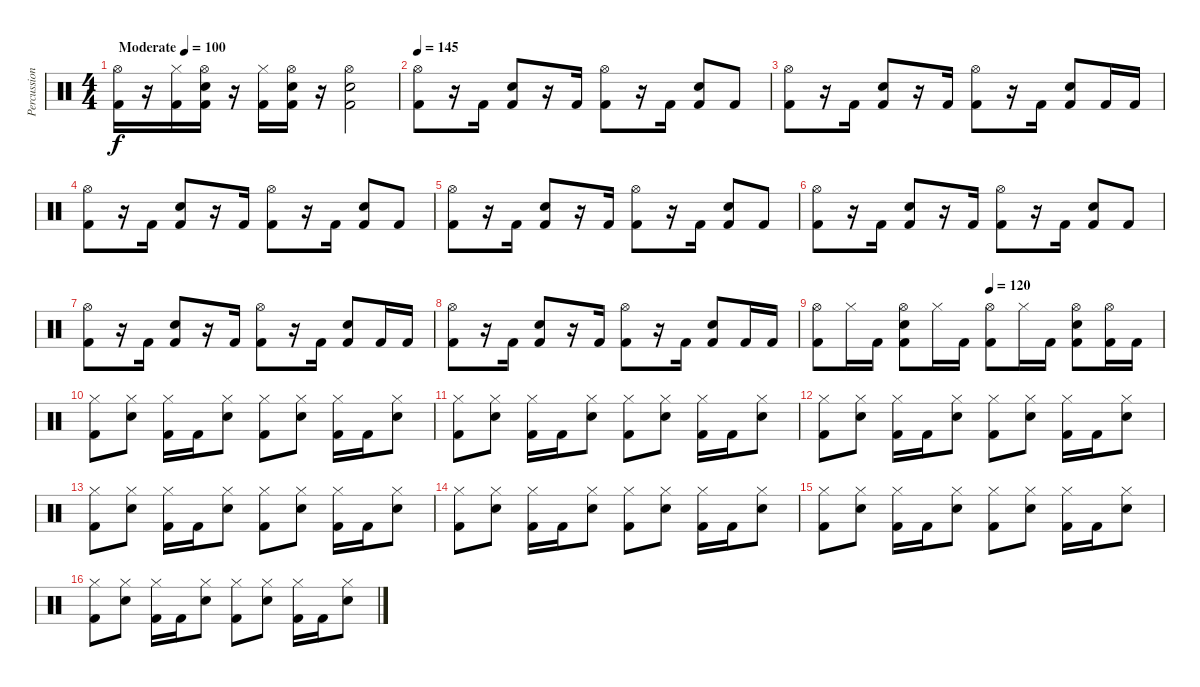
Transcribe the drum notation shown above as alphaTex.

\track ("Percussions" "Percussion") {instrument percussion}
\staff {score}
\articulation defaults
\ts (4 4)
\tempo (100 "Moderate")
\clef neutral
\ks c
("Hi-Hat (open)" "Kick (hit) 2").16{dy f} r.16 ("Hi-Hat (closed)" "Kick (hit) 2").16 ("Hi-Hat (open)" "Kick (hit) 2" "Snare (hit) 2").16 r.16 ("Hi-Hat (closed)" "Kick (hit) 2").16 ("Hi-Hat (open)" "Kick (hit) 2" "Snare (hit) 2").16 r.16 ("Hi-Hat (open)" "Kick (hit) 2" "Snare (hit) 2").2 |
\tempo 145
("Hi-Hat (open)" "Kick (hit) 2").8 r.16 "Kick (hit) 2".16 ("Kick (hit) 2" "Snare (hit) 2").8 r.16 "Kick (hit) 2".16 ("Hi-Hat (open)" "Kick (hit) 2").8 r.16 "Kick (hit) 2".16 ("Kick (hit) 2" "Snare (hit) 2").8 "Kick (hit) 2".8 |
("Hi-Hat (open)" "Kick (hit) 2").8 r.16 "Kick (hit) 2".16 ("Kick (hit) 2" "Snare (hit) 2").8 r.16 "Kick (hit) 2".16 ("Hi-Hat (open)" "Kick (hit) 2").8 r.16 "Kick (hit) 2".16 ("Kick (hit) 2" "Snare (hit) 2").8 "Kick (hit) 2".16 "Kick (hit) 2".16 |
("Hi-Hat (open)" "Kick (hit) 2").8 r.16 "Kick (hit) 2".16 ("Kick (hit) 2" "Snare (hit) 2").8 r.16 "Kick (hit) 2".16 ("Hi-Hat (open)" "Kick (hit) 2").8 r.16 "Kick (hit) 2".16 ("Kick (hit) 2" "Snare (hit) 2").8 "Kick (hit) 2".8 |
("Hi-Hat (open)" "Kick (hit) 2").8 r.16 "Kick (hit) 2".16 ("Kick (hit) 2" "Snare (hit) 2").8 r.16 "Kick (hit) 2".16 ("Hi-Hat (open)" "Kick (hit) 2").8 r.16 "Kick (hit) 2".16 ("Kick (hit) 2" "Snare (hit) 2").8 "Kick (hit) 2".8 |
("Hi-Hat (open)" "Kick (hit) 2").8 r.16 "Kick (hit) 2".16 ("Kick (hit) 2" "Snare (hit) 2").8 r.16 "Kick (hit) 2".16 ("Hi-Hat (open)" "Kick (hit) 2").8 r.16 "Kick (hit) 2".16 ("Kick (hit) 2" "Snare (hit) 2").8 "Kick (hit) 2".8 |
("Hi-Hat (open)" "Kick (hit) 2").8 r.16 "Kick (hit) 2".16 ("Kick (hit) 2" "Snare (hit) 2").8 r.16 "Kick (hit) 2".16 ("Hi-Hat (open)" "Kick (hit) 2").8 r.16 "Kick (hit) 2".16 ("Kick (hit) 2" "Snare (hit) 2").8 "Kick (hit) 2".16 "Kick (hit) 2".16 |
("Hi-Hat (open)" "Kick (hit) 2").8 r.16 "Kick (hit) 2".16 ("Kick (hit) 2" "Snare (hit) 2").8 r.16 "Kick (hit) 2".16 ("Hi-Hat (open)" "Kick (hit) 2").8 r.16 "Kick (hit) 2".16 ("Kick (hit) 2" "Snare (hit) 2").8 "Kick (hit) 2".16 "Kick (hit) 2".16 |
\tempo (120 0.5)
("Hi-Hat (open)" "Kick (hit) 2").8 "Hi-Hat (closed)".16 "Kick (hit) 2".16 ("Hi-Hat (open)" "Kick (hit) 2" "Snare (hit) 2").8 "Hi-Hat (closed)".16 "Kick (hit) 2".16 ("Hi-Hat (open)" "Kick (hit) 2").8 "Hi-Hat (closed)".16 "Kick (hit) 2".16 ("Hi-Hat (open)" "Kick (hit) 2" "Snare (hit) 2").8 ("Hi-Hat (open)" "Kick (hit) 2").16 "Kick (hit) 2".16 |
("Hi-Hat (closed)" "Kick (hit) 2").8 ("Hi-Hat (closed)" "Snare (hit) 2").8 ("Hi-Hat (closed)" "Kick (hit) 2").16 "Kick (hit) 2".16 ("Hi-Hat (closed)" "Snare (hit) 2").8 ("Hi-Hat (closed)" "Kick (hit) 2").8 ("Hi-Hat (closed)" "Snare (hit) 2").8 ("Hi-Hat (closed)" "Kick (hit) 2").16 "Kick (hit) 2".16 ("Hi-Hat (closed)" "Snare (hit) 2").8 |
("Hi-Hat (closed)" "Kick (hit) 2").8 ("Hi-Hat (closed)" "Snare (hit) 2").8 ("Hi-Hat (closed)" "Kick (hit) 2").16 "Kick (hit) 2".16 ("Hi-Hat (closed)" "Snare (hit) 2").8 ("Hi-Hat (closed)" "Kick (hit) 2").8 ("Hi-Hat (closed)" "Snare (hit) 2").8 ("Hi-Hat (closed)" "Kick (hit) 2").16 "Kick (hit) 2".16 ("Hi-Hat (closed)" "Snare (hit) 2").8 |
("Hi-Hat (closed)" "Kick (hit) 2").8 ("Hi-Hat (closed)" "Snare (hit) 2").8 ("Hi-Hat (closed)" "Kick (hit) 2").16 "Kick (hit) 2".16 ("Hi-Hat (closed)" "Snare (hit) 2").8 ("Hi-Hat (closed)" "Kick (hit) 2").8 ("Hi-Hat (closed)" "Snare (hit) 2").8 ("Hi-Hat (closed)" "Kick (hit) 2").16 "Kick (hit) 2".16 ("Hi-Hat (closed)" "Snare (hit) 2").8 |
("Hi-Hat (closed)" "Kick (hit) 2").8 ("Hi-Hat (closed)" "Snare (hit) 2").8 ("Hi-Hat (closed)" "Kick (hit) 2").16 "Kick (hit) 2".16 ("Hi-Hat (closed)" "Snare (hit) 2").8 ("Hi-Hat (closed)" "Kick (hit) 2").8 ("Hi-Hat (closed)" "Snare (hit) 2").8 ("Hi-Hat (closed)" "Kick (hit) 2").16 "Kick (hit) 2".16 ("Hi-Hat (closed)" "Snare (hit) 2").8 |
("Hi-Hat (closed)" "Kick (hit) 2").8 ("Hi-Hat (closed)" "Snare (hit) 2").8 ("Hi-Hat (closed)" "Kick (hit) 2").16 "Kick (hit) 2".16 ("Hi-Hat (closed)" "Snare (hit) 2").8 ("Hi-Hat (closed)" "Kick (hit) 2").8 ("Hi-Hat (closed)" "Snare (hit) 2").8 ("Hi-Hat (closed)" "Kick (hit) 2").16 "Kick (hit) 2".16 ("Hi-Hat (closed)" "Snare (hit) 2").8 |
("Hi-Hat (closed)" "Kick (hit) 2").8 ("Hi-Hat (closed)" "Snare (hit) 2").8 ("Hi-Hat (closed)" "Kick (hit) 2").16 "Kick (hit) 2".16 ("Hi-Hat (closed)" "Snare (hit) 2").8 ("Hi-Hat (closed)" "Kick (hit) 2").8 ("Hi-Hat (closed)" "Snare (hit) 2").8 ("Hi-Hat (closed)" "Kick (hit) 2").16 "Kick (hit) 2".16 ("Hi-Hat (closed)" "Snare (hit) 2").8 |
("Hi-Hat (closed)" "Kick (hit) 2").8 ("Hi-Hat (closed)" "Snare (hit) 2").8 ("Hi-Hat (closed)" "Kick (hit) 2").16 "Kick (hit) 2".16 ("Hi-Hat (closed)" "Snare (hit) 2").8 ("Hi-Hat (closed)" "Kick (hit) 2").8 ("Hi-Hat (closed)" "Snare (hit) 2").8 ("Hi-Hat (closed)" "Kick (hit) 2").16 "Kick (hit) 2".16 ("Hi-Hat (closed)" "Snare (hit) 2").8
